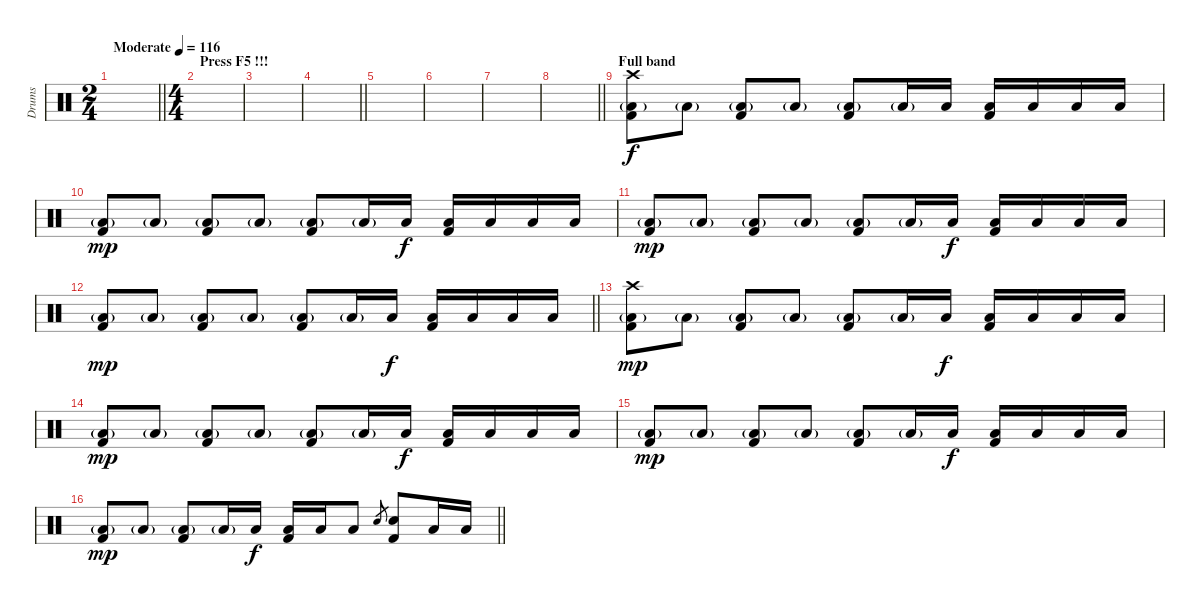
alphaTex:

\track ("Drums" "Drums") {instrument percussion}
\staff {score}
\articulation defaults
\ts (2 4)
\section ("" "")
\tempo (116 "Moderate")
\clef neutral
\barLineRight lightlight
\ks c
|
\ts (4 4)
\section ("" "Press F5 !!!")
|
|
\barLineRight lightlight
|
|
|
|
\barLineRight lightlight
|
\section ("" "Full band")
("Crash high (hit)" "Low Floor Tom (hit)"{g} "Kick (hit) 2").8 "Low Floor Tom (hit)"{g}.8 ("Low Floor Tom (hit)"{g} "Kick (hit) 2").8 "Low Floor Tom (hit)"{g}.8 ("Low Floor Tom (hit)"{g} "Kick (hit) 2").8 "Low Floor Tom (hit)"{g}.16 "Low Floor Tom (hit)".16{dy f} ("Low Floor Tom (hit)" "Kick (hit) 2").16 "Low Tom (hit)".16 "Low Floor Tom (hit)".16 "Low Floor Tom (hit)".16 |
("Low Floor Tom (hit)"{g} "Kick (hit) 2").8{dy mp} "Low Floor Tom (hit)"{g}.8 ("Low Floor Tom (hit)"{g} "Kick (hit) 2").8 "Low Floor Tom (hit)"{g}.8 ("Low Floor Tom (hit)"{g} "Kick (hit) 2").8 "Low Floor Tom (hit)"{g}.16 "Low Floor Tom (hit)".16{dy f} ("Low Floor Tom (hit)" "Kick (hit) 2").16 "Low Tom (hit)".16 "Low Floor Tom (hit)".16 "Low Floor Tom (hit)".16 |
("Low Floor Tom (hit)"{g} "Kick (hit) 2").8{dy mp} "Low Floor Tom (hit)"{g}.8 ("Low Floor Tom (hit)"{g} "Kick (hit) 2").8 "Low Floor Tom (hit)"{g}.8 ("Low Floor Tom (hit)"{g} "Kick (hit) 2").8 "Low Floor Tom (hit)"{g}.16 "Low Floor Tom (hit)".16{dy f} ("Low Floor Tom (hit)" "Kick (hit) 2").16 "Low Tom (hit)".16 "Low Floor Tom (hit)".16 "Low Floor Tom (hit)".16 |
\barLineRight lightlight
("Low Floor Tom (hit)"{g} "Kick (hit) 2").8{dy mp} "Low Floor Tom (hit)"{g}.8 ("Low Floor Tom (hit)"{g} "Kick (hit) 2").8 "Low Floor Tom (hit)"{g}.8 ("Low Floor Tom (hit)"{g} "Kick (hit) 2").8 "Low Floor Tom (hit)"{g}.16 "Low Floor Tom (hit)".16{dy f} ("Low Floor Tom (hit)" "Kick (hit) 2").16 "Low Tom (hit)".16 "Low Floor Tom (hit)".16 "Low Floor Tom (hit)".16 |
("Crash high (hit)" "Low Floor Tom (hit)"{g} "Kick (hit) 2").8{dy mp} "Low Floor Tom (hit)"{g}.8 ("Low Floor Tom (hit)"{g} "Kick (hit) 2").8 "Low Floor Tom (hit)"{g}.8 ("Low Floor Tom (hit)"{g} "Kick (hit) 2").8 "Low Floor Tom (hit)"{g}.16 "Low Floor Tom (hit)".16{dy f} ("Low Floor Tom (hit)" "Kick (hit) 2").16 "Low Tom (hit)".16 "Low Floor Tom (hit)".16 "Low Floor Tom (hit)".16 |
("Low Floor Tom (hit)"{g} "Kick (hit) 2").8{dy mp} "Low Floor Tom (hit)"{g}.8 ("Low Floor Tom (hit)"{g} "Kick (hit) 2").8 "Low Floor Tom (hit)"{g}.8 ("Low Floor Tom (hit)"{g} "Kick (hit) 2").8 "Low Floor Tom (hit)"{g}.16 "Low Floor Tom (hit)".16{dy f} ("Low Floor Tom (hit)" "Kick (hit) 2").16 "Low Tom (hit)".16 "Low Floor Tom (hit)".16 "Low Floor Tom (hit)".16 |
("Low Floor Tom (hit)"{g} "Kick (hit) 2").8{dy mp} "Low Floor Tom (hit)"{g}.8 ("Low Floor Tom (hit)"{g} "Kick (hit) 2").8 "Low Floor Tom (hit)"{g}.8 ("Low Floor Tom (hit)"{g} "Kick (hit) 2").8 "Low Floor Tom (hit)"{g}.16 "Low Floor Tom (hit)".16{dy f} ("Low Floor Tom (hit)" "Kick (hit) 2").16 "Low Tom (hit)".16 "Low Floor Tom (hit)".16 "Low Floor Tom (hit)".16 |
\barLineRight lightlight
("Low Floor Tom (hit)"{g} "Kick (hit) 2").8{dy mp} "Low Floor Tom (hit)"{g}.8 ("Low Floor Tom (hit)"{g} "Kick (hit) 2").8 "Low Floor Tom (hit)"{g}.16 "Low Floor Tom (hit)".16{dy f} ("Low Floor Tom (hit)" "Kick (hit) 2").16 "Low Tom (hit)".16 "Low Floor Tom (hit)".8 "Electric Snare (hit)".8{gr} ("Electric Snare (hit)" "Kick (hit) 2").8 "Low Floor Tom (hit)".16 "Low Floor Tom (hit)".16
